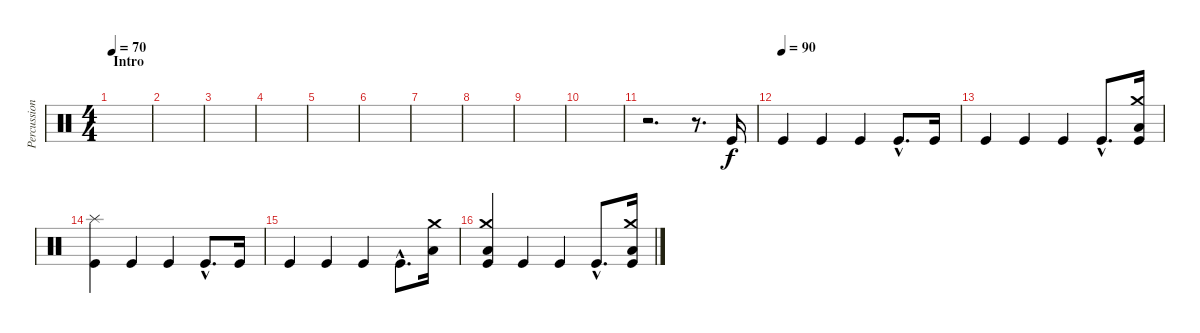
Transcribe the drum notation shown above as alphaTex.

\track ("Percussioni" "Percussion") {instrument percussion}
\staff {score}
\articulation defaults
\ts (4 4)
\section ("" "Intro")
\tempo 70
\clef neutral
\ks c
|
|
|
|
|
|
|
|
|
|
r.2{d} r.8{d} "Kick (hit)".16 |
\tempo (90)
"Kick (hit)".4 "Kick (hit)".4 "Kick (hit)".4 "Kick (hit)"{hac}.8{d} "Kick (hit)".16 |
"Kick (hit)".4 "Kick (hit)".4 "Kick (hit)".4 "Kick (hit)"{hac}.8{d} ("Crash medium (hit)" "Low Floor Tom (hit)" "Kick (hit)").16 |
("Splash (hit)" "Kick (hit)").4 "Kick (hit)".4 "Kick (hit)".4 "Kick (hit)"{hac}.8{d} "Kick (hit)".16 |
"Kick (hit)".4 "Kick (hit)".4 "Kick (hit)".4 "Kick (hit)"{hac}.8{d} ("Crash medium (hit)" "Low Floor Tom (hit)").16 |
("Crash medium (hit)" "Low Floor Tom (hit)" "Kick (hit)").4 "Kick (hit)".4 "Kick (hit)".4 "Kick (hit)"{hac}.8{d} ("Crash medium (hit)" "Low Floor Tom (hit)" "Kick (hit)").16
